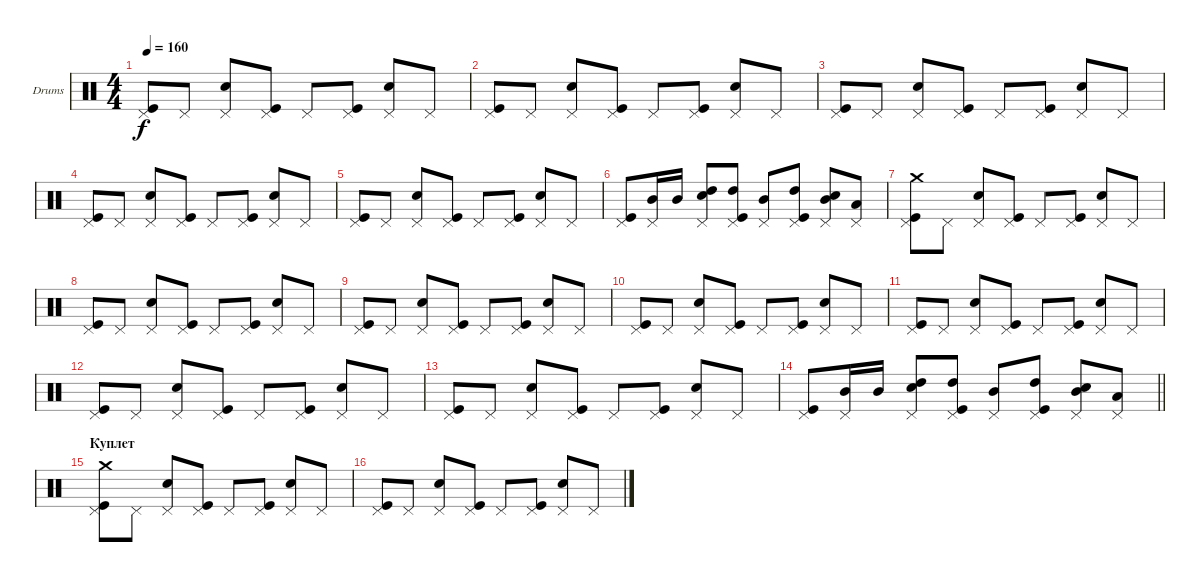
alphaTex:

\bracketExtendMode groupsimilarinstruments
\firstSystemTrackNameOrientation horizontal
\otherSystemsTrackNameOrientation horizontal
\track ("Ударные" "Drums") {instrument percussion}
\staff {score}
\articulation defaults
\ts (4 4)
\tempo 160
\clef neutral
\ks c
("Pedal Hi-Hat (hit)" "Kick (hit)").8{dy f} "Pedal Hi-Hat (hit)".8 ("Pedal Hi-Hat (hit)" "Snare (hit) 2").8 ("Pedal Hi-Hat (hit)" "Kick (hit)").8 "Pedal Hi-Hat (hit)".8 ("Pedal Hi-Hat (hit)" "Kick (hit)").8 ("Pedal Hi-Hat (hit)" "Snare (hit) 2").8 "Pedal Hi-Hat (hit)".8 |
("Pedal Hi-Hat (hit)" "Kick (hit)").8 "Pedal Hi-Hat (hit)".8 ("Pedal Hi-Hat (hit)" "Snare (hit) 2").8 ("Pedal Hi-Hat (hit)" "Kick (hit)").8 "Pedal Hi-Hat (hit)".8 ("Pedal Hi-Hat (hit)" "Kick (hit)").8 ("Pedal Hi-Hat (hit)" "Snare (hit) 2").8 "Pedal Hi-Hat (hit)".8 |
("Pedal Hi-Hat (hit)" "Kick (hit)").8 "Pedal Hi-Hat (hit)".8 ("Pedal Hi-Hat (hit)" "Snare (hit) 2").8 ("Pedal Hi-Hat (hit)" "Kick (hit)").8 "Pedal Hi-Hat (hit)".8 ("Pedal Hi-Hat (hit)" "Kick (hit)").8 ("Pedal Hi-Hat (hit)" "Snare (hit) 2").8 "Pedal Hi-Hat (hit)".8 |
("Pedal Hi-Hat (hit)" "Kick (hit)").8 "Pedal Hi-Hat (hit)".8 ("Pedal Hi-Hat (hit)" "Snare (hit) 2").8 ("Pedal Hi-Hat (hit)" "Kick (hit)").8 "Pedal Hi-Hat (hit)".8 ("Pedal Hi-Hat (hit)" "Kick (hit)").8 ("Pedal Hi-Hat (hit)" "Snare (hit) 2").8 "Pedal Hi-Hat (hit)".8 |
("Pedal Hi-Hat (hit)" "Kick (hit)").8 "Pedal Hi-Hat (hit)".8 ("Pedal Hi-Hat (hit)" "Snare (hit) 2").8 ("Pedal Hi-Hat (hit)" "Kick (hit)").8 "Pedal Hi-Hat (hit)".8 ("Pedal Hi-Hat (hit)" "Kick (hit)").8 ("Pedal Hi-Hat (hit)" "Snare (hit) 2").8 "Pedal Hi-Hat (hit)".8 |
("Pedal Hi-Hat (hit)" "Kick (hit)").8 ("Pedal Hi-Hat (hit)" "Mid Tom (hit)").16 "Mid Tom (hit)".16 ("Pedal Hi-Hat (hit)" "High Tom (hit)" "Snare (hit) 2").8 ("Pedal Hi-Hat (hit)" "High Tom (hit)" "Kick (hit)").8 ("Pedal Hi-Hat (hit)" "Mid Tom (hit)").8 ("Pedal Hi-Hat (hit)" "High Tom (hit)" "Kick (hit)").8 ("Pedal Hi-Hat (hit)" "Mid Tom (hit)" "Snare (hit) 2").8 ("Pedal Hi-Hat (hit)" "Low Tom (hit)").8 |
("Pedal Hi-Hat (hit)" "Crash medium (hit)" "Kick (hit)").8 "Pedal Hi-Hat (hit)".8 ("Pedal Hi-Hat (hit)" "Snare (hit) 2").8 ("Pedal Hi-Hat (hit)" "Kick (hit)").8 "Pedal Hi-Hat (hit)".8 ("Pedal Hi-Hat (hit)" "Kick (hit)").8 ("Pedal Hi-Hat (hit)" "Snare (hit) 2").8 "Pedal Hi-Hat (hit)".8 |
("Pedal Hi-Hat (hit)" "Kick (hit)").8 "Pedal Hi-Hat (hit)".8 ("Pedal Hi-Hat (hit)" "Snare (hit) 2").8 ("Pedal Hi-Hat (hit)" "Kick (hit)").8 "Pedal Hi-Hat (hit)".8 ("Pedal Hi-Hat (hit)" "Kick (hit)").8 ("Pedal Hi-Hat (hit)" "Snare (hit) 2").8 "Pedal Hi-Hat (hit)".8 |
("Pedal Hi-Hat (hit)" "Kick (hit)").8 "Pedal Hi-Hat (hit)".8 ("Pedal Hi-Hat (hit)" "Snare (hit) 2").8 ("Pedal Hi-Hat (hit)" "Kick (hit)").8 "Pedal Hi-Hat (hit)".8 ("Pedal Hi-Hat (hit)" "Kick (hit)").8 ("Pedal Hi-Hat (hit)" "Snare (hit) 2").8 "Pedal Hi-Hat (hit)".8 |
("Pedal Hi-Hat (hit)" "Kick (hit)").8 "Pedal Hi-Hat (hit)".8 ("Pedal Hi-Hat (hit)" "Snare (hit) 2").8 ("Pedal Hi-Hat (hit)" "Kick (hit)").8 "Pedal Hi-Hat (hit)".8 ("Pedal Hi-Hat (hit)" "Kick (hit)").8 ("Pedal Hi-Hat (hit)" "Snare (hit) 2").8 "Pedal Hi-Hat (hit)".8 |
("Pedal Hi-Hat (hit)" "Kick (hit)").8 "Pedal Hi-Hat (hit)".8 ("Pedal Hi-Hat (hit)" "Snare (hit) 2").8 ("Pedal Hi-Hat (hit)" "Kick (hit)").8 "Pedal Hi-Hat (hit)".8 ("Pedal Hi-Hat (hit)" "Kick (hit)").8 ("Pedal Hi-Hat (hit)" "Snare (hit) 2").8 "Pedal Hi-Hat (hit)".8 |
("Pedal Hi-Hat (hit)" "Kick (hit)").8 "Pedal Hi-Hat (hit)".8 ("Pedal Hi-Hat (hit)" "Snare (hit) 2").8 ("Pedal Hi-Hat (hit)" "Kick (hit)").8 "Pedal Hi-Hat (hit)".8 ("Pedal Hi-Hat (hit)" "Kick (hit)").8 ("Pedal Hi-Hat (hit)" "Snare (hit) 2").8 "Pedal Hi-Hat (hit)".8 |
("Pedal Hi-Hat (hit)" "Kick (hit)").8 "Pedal Hi-Hat (hit)".8 ("Pedal Hi-Hat (hit)" "Snare (hit) 2").8 ("Pedal Hi-Hat (hit)" "Kick (hit)").8 "Pedal Hi-Hat (hit)".8 ("Pedal Hi-Hat (hit)" "Kick (hit)").8 ("Pedal Hi-Hat (hit)" "Snare (hit) 2").8 "Pedal Hi-Hat (hit)".8 |
\barLineRight lightlight
("Pedal Hi-Hat (hit)" "Kick (hit)").8 ("Pedal Hi-Hat (hit)" "Mid Tom (hit)").16 "Mid Tom (hit)".16 ("Pedal Hi-Hat (hit)" "High Tom (hit)" "Snare (hit) 2").8 ("Pedal Hi-Hat (hit)" "High Tom (hit)" "Kick (hit)").8 ("Pedal Hi-Hat (hit)" "Mid Tom (hit)").8 ("Pedal Hi-Hat (hit)" "High Tom (hit)" "Kick (hit)").8 ("Pedal Hi-Hat (hit)" "Mid Tom (hit)" "Snare (hit) 2").8 ("Pedal Hi-Hat (hit)" "Low Tom (hit)").8 |
\section ("" "Куплет")
("Pedal Hi-Hat (hit)" "Crash medium (hit)" "Kick (hit)").8 "Pedal Hi-Hat (hit)".8 ("Pedal Hi-Hat (hit)" "Snare (hit) 2").8 ("Pedal Hi-Hat (hit)" "Kick (hit)").8 "Pedal Hi-Hat (hit)".8 ("Pedal Hi-Hat (hit)" "Kick (hit)").8 ("Pedal Hi-Hat (hit)" "Snare (hit) 2").8 "Pedal Hi-Hat (hit)".8 |
("Pedal Hi-Hat (hit)" "Kick (hit)").8 "Pedal Hi-Hat (hit)".8 ("Pedal Hi-Hat (hit)" "Snare (hit) 2").8 ("Pedal Hi-Hat (hit)" "Kick (hit)").8 "Pedal Hi-Hat (hit)".8 ("Pedal Hi-Hat (hit)" "Kick (hit)").8 ("Pedal Hi-Hat (hit)" "Snare (hit) 2").8 "Pedal Hi-Hat (hit)".8
